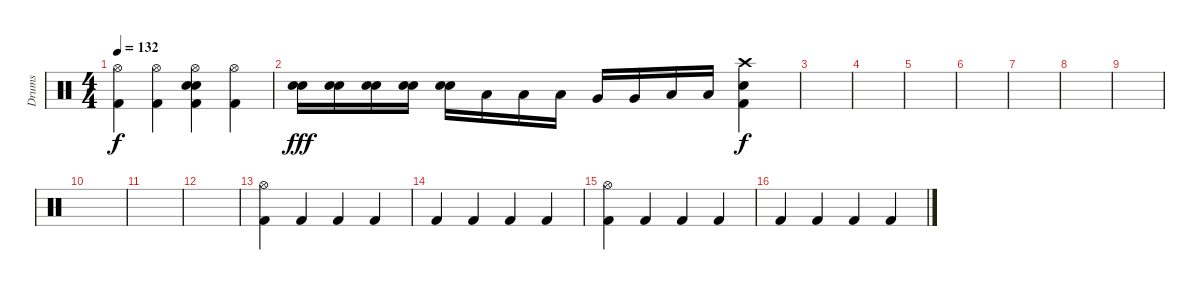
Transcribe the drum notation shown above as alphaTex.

\track ("Drums" "Drums") {instrument percussion}
\staff {score}
\articulation defaults
\ts (4 4)
\tempo 132
\clef neutral
\ks c
("Hi-Hat (open)" "Kick (hit) 2").4{dy f} ("Hi-Hat (open)" "Kick (hit) 2").4 ("Hi-Hat (open)" "Electric Snare (hit)" "Snare (hit) 2" "Kick (hit) 2").4 ("Hi-Hat (open)" "Kick (hit) 2").4 |
("Electric Snare (hit)" "Snare (hit) 2").16{dy fff} ("Electric Snare (hit)" "Snare (hit) 2").16 ("Electric Snare (hit)" "Snare (hit) 2").16 ("Electric Snare (hit)" "Snare (hit) 2").16 ("Electric Snare (hit)" "Snare (hit) 2").16 "Low Floor Tom (hit)".16 "Low Floor Tom (hit)".16 "Low Floor Tom (hit)".16 "Very Low Tom (hit)".16 "Very Low Tom (hit)".16 "Low Tom (hit)".16 "Low Tom (hit)".16 ("Electric Snare (hit)" "Crash high (hit)" "Kick (hit) 2").4{dy f} |
|
|
|
|
|
|
|
|
|
|
("Hi-Hat (open)" "Kick (hit) 2").4 "Kick (hit) 2".4 "Kick (hit) 2".4 "Kick (hit) 2".4 |
"Kick (hit) 2".4 "Kick (hit) 2".4 "Kick (hit) 2".4 "Kick (hit) 2".4 |
("Hi-Hat (open)" "Kick (hit) 2").4 "Kick (hit) 2".4 "Kick (hit) 2".4 "Kick (hit) 2".4 |
"Kick (hit) 2".4 "Kick (hit) 2".4 "Kick (hit) 2".4 "Kick (hit) 2".4
